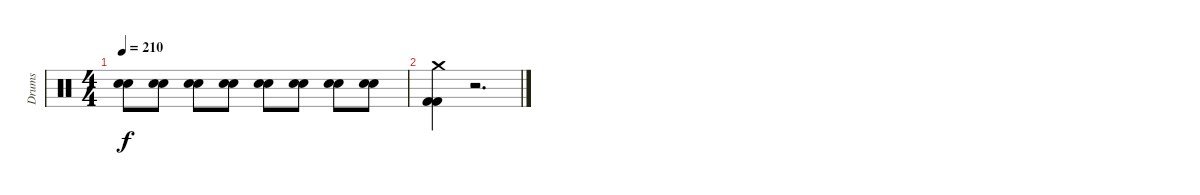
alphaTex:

\track ("Drums" "Drums") {instrument percussion}
\staff {score}
\articulation defaults
\ts (4 4)
\tempo 210
\clef neutral
\ks c
("Snare (hit) 2" "Snare (hit) 2").8{dy f} ("Snare (hit) 2" "Snare (hit) 2").8 ("Snare (hit) 2" "Snare (hit) 2").8 ("Snare (hit) 2" "Snare (hit) 2").8 ("Snare (hit) 2" "Snare (hit) 2").8 ("Snare (hit) 2" "Snare (hit) 2").8 ("Snare (hit) 2" "Snare (hit) 2").8 ("Snare (hit) 2" "Snare (hit) 2").8 |
("Crash medium (hit)" "Kick (hit) 2" "Kick (hit) 2").4 r.2{d}
